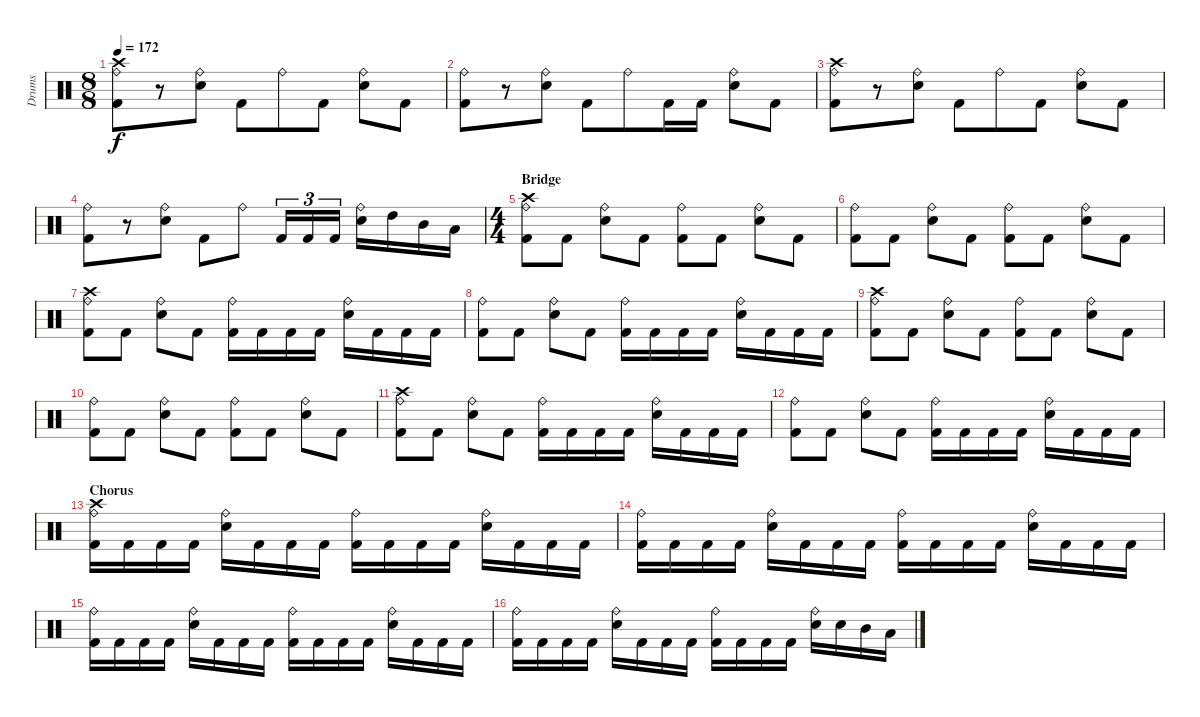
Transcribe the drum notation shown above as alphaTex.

\track ("Drums" "Drums") {instrument percussion}
\staff {score}
\articulation defaults
\ts (8 8)
\tempo 172
\clef neutral
\ks c
("Crash high (hit)" "Ride (bell)" "Kick (hit) 2").8{dy f} r.8 ("Ride (bell)" "Electric Snare (hit)").8 "Kick (hit) 2".8 "Ride (bell)".8 "Kick (hit) 2".8 ("Ride (bell)" "Electric Snare (hit)").8 "Kick (hit) 2".8 |
("Ride (bell)" "Kick (hit) 2").8 r.8 ("Ride (bell)" "Electric Snare (hit)").8 "Kick (hit) 2".8 "Ride (bell)".8 "Kick (hit) 2".16 "Kick (hit) 2".16 ("Ride (bell)" "Electric Snare (hit)").8 "Kick (hit) 2".8 |
("Crash high (hit)" "Ride (bell)" "Kick (hit) 2").8 r.8 ("Ride (bell)" "Electric Snare (hit)").8 "Kick (hit) 2".8 "Ride (bell)".8 "Kick (hit) 2".8 ("Ride (bell)" "Electric Snare (hit)").8 "Kick (hit) 2".8 |
("Ride (bell)" "Kick (hit) 2").8 r.8 ("Ride (bell)" "Electric Snare (hit)").8 "Kick (hit) 2".8 "Ride (bell)".8 "Kick (hit) 2".16{tu (3 2)} "Kick (hit) 2".16{tu (3 2)} "Kick (hit) 2".16{tu (3 2)} ("Ride (bell)" "Electric Snare (hit)").16 "High Tom (hit)".16 "Mid Tom (hit)".16 "Low Tom (hit)".16 |
\ts (4 4)
\section ("" "Bridge")
("Crash high (hit)" "Ride (bell)" "Kick (hit) 2").8 "Kick (hit) 2".8 ("Ride (bell)" "Electric Snare (hit)").8 "Kick (hit) 2".8 ("Ride (bell)" "Kick (hit) 2").8 "Kick (hit) 2".8 ("Ride (bell)" "Electric Snare (hit)").8 "Kick (hit) 2".8 |
("Ride (bell)" "Kick (hit) 2").8 "Kick (hit) 2".8 ("Ride (bell)" "Electric Snare (hit)").8 "Kick (hit) 2".8 ("Ride (bell)" "Kick (hit) 2").8 "Kick (hit) 2".8 ("Ride (bell)" "Electric Snare (hit)").8 "Kick (hit) 2".8 |
("Crash high (hit)" "Ride (bell)" "Kick (hit) 2").8 "Kick (hit) 2".8 ("Ride (bell)" "Electric Snare (hit)").8 "Kick (hit) 2".8 ("Ride (bell)" "Kick (hit) 2").16 "Kick (hit) 2".16 "Kick (hit) 2".16 "Kick (hit) 2".16 ("Ride (bell)" "Electric Snare (hit)").16 "Kick (hit) 2".16 "Kick (hit) 2".16 "Kick (hit) 2".16 |
("Ride (bell)" "Kick (hit) 2").8 "Kick (hit) 2".8 ("Ride (bell)" "Electric Snare (hit)").8 "Kick (hit) 2".8 ("Ride (bell)" "Kick (hit) 2").16 "Kick (hit) 2".16 "Kick (hit) 2".16 "Kick (hit) 2".16 ("Ride (bell)" "Electric Snare (hit)").16 "Kick (hit) 2".16 "Kick (hit) 2".16 "Kick (hit) 2".16 |
("Crash high (hit)" "Ride (bell)" "Kick (hit) 2").8 "Kick (hit) 2".8 ("Ride (bell)" "Electric Snare (hit)").8 "Kick (hit) 2".8 ("Ride (bell)" "Kick (hit) 2").8 "Kick (hit) 2".8 ("Ride (bell)" "Electric Snare (hit)").8 "Kick (hit) 2".8 |
("Ride (bell)" "Kick (hit) 2").8 "Kick (hit) 2".8 ("Ride (bell)" "Electric Snare (hit)").8 "Kick (hit) 2".8 ("Ride (bell)" "Kick (hit) 2").8 "Kick (hit) 2".8 ("Ride (bell)" "Electric Snare (hit)").8 "Kick (hit) 2".8 |
("Crash high (hit)" "Ride (bell)" "Kick (hit) 2").8 "Kick (hit) 2".8 ("Ride (bell)" "Electric Snare (hit)").8 "Kick (hit) 2".8 ("Ride (bell)" "Kick (hit) 2").16 "Kick (hit) 2".16 "Kick (hit) 2".16 "Kick (hit) 2".16 ("Ride (bell)" "Electric Snare (hit)").16 "Kick (hit) 2".16 "Kick (hit) 2".16 "Kick (hit) 2".16 |
("Ride (bell)" "Kick (hit) 2").8 "Kick (hit) 2".8 ("Ride (bell)" "Electric Snare (hit)").8 "Kick (hit) 2".8 ("Ride (bell)" "Kick (hit) 2").16 "Kick (hit) 2".16 "Kick (hit) 2".16 "Kick (hit) 2".16 ("Ride (bell)" "Electric Snare (hit)").16 "Kick (hit) 2".16 "Kick (hit) 2".16 "Kick (hit) 2".16 |
\section ("" "Chorus")
("Crash high (hit)" "Ride (bell)" "Kick (hit) 2").16 "Kick (hit) 2".16 "Kick (hit) 2".16 "Kick (hit) 2".16 ("Ride (bell)" "Electric Snare (hit)").16 "Kick (hit) 2".16 "Kick (hit) 2".16 "Kick (hit) 2".16 ("Ride (bell)" "Kick (hit) 2").16 "Kick (hit) 2".16 "Kick (hit) 2".16 "Kick (hit) 2".16 ("Ride (bell)" "Electric Snare (hit)").16 "Kick (hit) 2".16 "Kick (hit) 2".16 "Kick (hit) 2".16 |
("Ride (bell)" "Kick (hit) 2").16 "Kick (hit) 2".16 "Kick (hit) 2".16 "Kick (hit) 2".16 ("Ride (bell)" "Electric Snare (hit)").16 "Kick (hit) 2".16 "Kick (hit) 2".16 "Kick (hit) 2".16 ("Ride (bell)" "Kick (hit) 2").16 "Kick (hit) 2".16 "Kick (hit) 2".16 "Kick (hit) 2".16 ("Ride (bell)" "Electric Snare (hit)").16 "Kick (hit) 2".16 "Kick (hit) 2".16 "Kick (hit) 2".16 |
("Ride (bell)" "Kick (hit) 2").16 "Kick (hit) 2".16 "Kick (hit) 2".16 "Kick (hit) 2".16 ("Ride (bell)" "Electric Snare (hit)").16 "Kick (hit) 2".16 "Kick (hit) 2".16 "Kick (hit) 2".16 ("Ride (bell)" "Kick (hit) 2").16 "Kick (hit) 2".16 "Kick (hit) 2".16 "Kick (hit) 2".16 ("Ride (bell)" "Electric Snare (hit)").16 "Kick (hit) 2".16 "Kick (hit) 2".16 "Kick (hit) 2".16 |
("Ride (bell)" "Kick (hit) 2").16 "Kick (hit) 2".16 "Kick (hit) 2".16 "Kick (hit) 2".16 ("Ride (bell)" "Electric Snare (hit)").16 "Kick (hit) 2".16 "Kick (hit) 2".16 "Kick (hit) 2".16 ("Ride (bell)" "Kick (hit) 2").16 "Kick (hit) 2".16 "Kick (hit) 2".16 "Kick (hit) 2".16 ("Ride (bell)" "Electric Snare (hit)").16 "Electric Snare (hit)".16 "Mid Tom (hit)".16 "Low Tom (hit)".16
